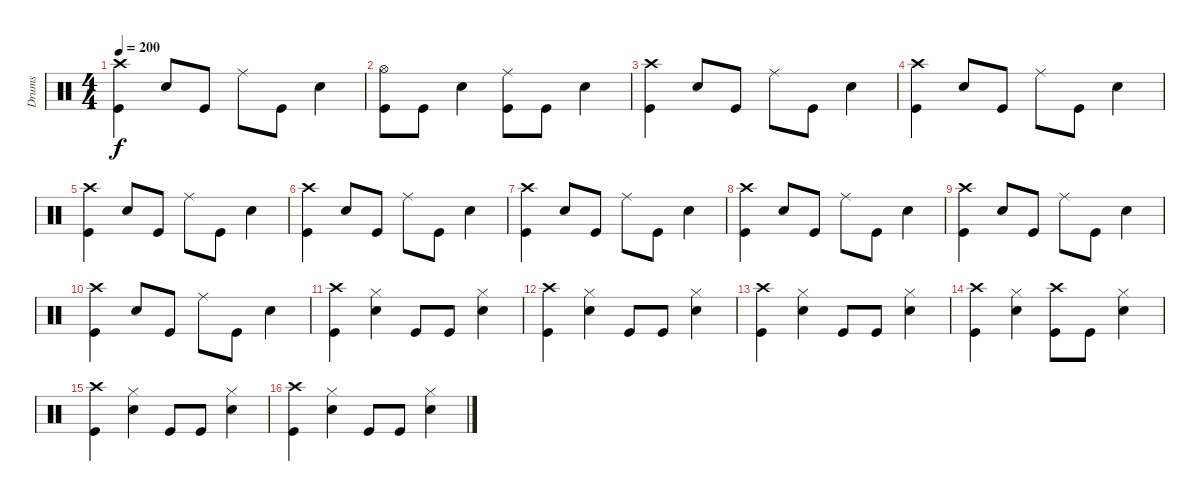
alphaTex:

\track ("Drums" "Drums") {instrument percussion}
\staff {score}
\articulation defaults
\ts (4 4)
\tempo 200
\clef neutral
\ks c
("Crash high (hit)" "Kick (hit)").4{dy f} "Snare (hit) 2".8 "Kick (hit)".8 "Ride (middle)".8 "Kick (hit)".8 "Snare (hit) 2".4 |
("Hi-Hat (open)" "Kick (hit)").8 "Kick (hit)".8 "Snare (hit) 2".4 ("Ride (middle)" "Kick (hit)").8 "Kick (hit)".8 "Snare (hit) 2".4 |
("Crash high (hit)" "Kick (hit)").4 "Snare (hit) 2".8 "Kick (hit)".8 "Ride (middle)".8 "Kick (hit)".8 "Snare (hit) 2".4 |
("Crash high (hit)" "Kick (hit)").4 "Snare (hit) 2".8 "Kick (hit)".8 "Ride (middle)".8 "Kick (hit)".8 "Snare (hit) 2".4 |
("Crash high (hit)" "Kick (hit)").4 "Snare (hit) 2".8 "Kick (hit)".8 "Ride (middle)".8 "Kick (hit)".8 "Snare (hit) 2".4 |
("Crash high (hit)" "Kick (hit)").4 "Snare (hit) 2".8 "Kick (hit)".8 "Ride (middle)".8 "Kick (hit)".8 "Snare (hit) 2".4 |
("Crash high (hit)" "Kick (hit)").4 "Snare (hit) 2".8 "Kick (hit)".8 "Ride (middle)".8 "Kick (hit)".8 "Snare (hit) 2".4 |
("Crash high (hit)" "Kick (hit)").4 "Snare (hit) 2".8 "Kick (hit)".8 "Ride (middle)".8 "Kick (hit)".8 "Snare (hit) 2".4 |
("Crash high (hit)" "Kick (hit)").4 "Snare (hit) 2".8 "Kick (hit)".8 "Ride (middle)".8 "Kick (hit)".8 "Snare (hit) 2".4 |
("Crash high (hit)" "Kick (hit)").4 "Snare (hit) 2".8 "Kick (hit)".8 "Ride (middle)".8 "Kick (hit)".8 "Snare (hit) 2".4 |
("Crash high (hit)" "Kick (hit)").4 ("Hi-Hat (closed)" "Snare (hit) 2").4 "Kick (hit)".8 "Kick (hit)".8 ("Hi-Hat (closed)" "Snare (hit) 2").4 |
("Crash high (hit)" "Kick (hit)").4 ("Hi-Hat (closed)" "Snare (hit) 2").4 "Kick (hit)".8 "Kick (hit)".8 ("Hi-Hat (closed)" "Snare (hit) 2").4 |
("Crash high (hit)" "Kick (hit)").4 ("Hi-Hat (closed)" "Snare (hit) 2").4 "Kick (hit)".8 "Kick (hit)".8 ("Hi-Hat (closed)" "Snare (hit) 2").4 |
("Crash high (hit)" "Kick (hit)").4 ("Hi-Hat (closed)" "Snare (hit) 2").4 ("Crash high (hit)" "Kick (hit)").8 "Kick (hit)".8 ("Hi-Hat (closed)" "Snare (hit) 2").4 |
("Crash high (hit)" "Kick (hit)").4 ("Hi-Hat (closed)" "Snare (hit) 2").4 "Kick (hit)".8 "Kick (hit)".8 ("Hi-Hat (closed)" "Snare (hit) 2").4 |
("Crash high (hit)" "Kick (hit)").4 ("Hi-Hat (closed)" "Snare (hit) 2").4 "Kick (hit)".8 "Kick (hit)".8 ("Hi-Hat (closed)" "Snare (hit) 2").4
